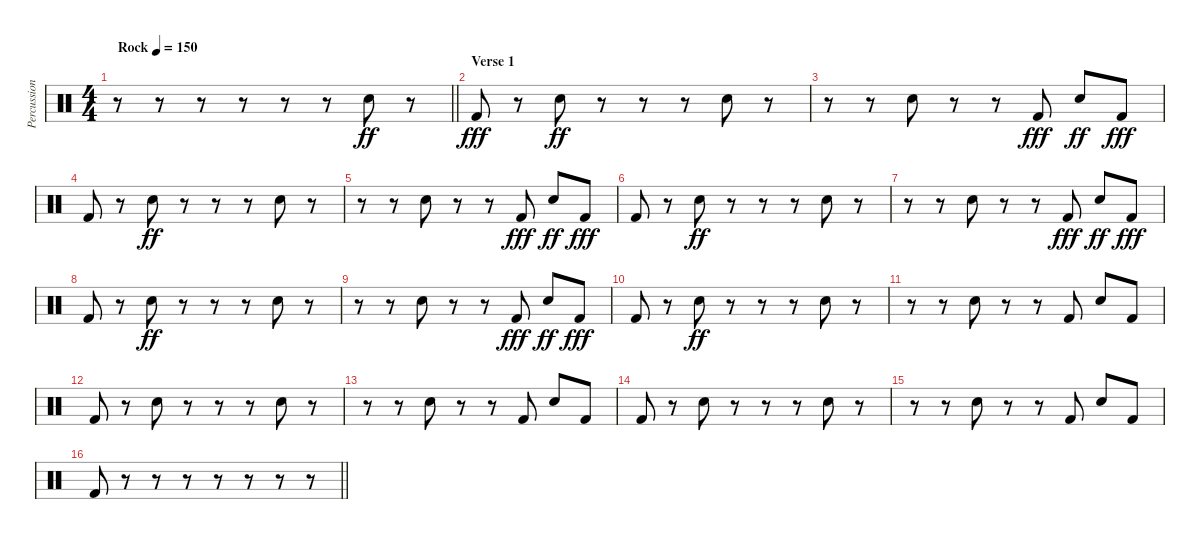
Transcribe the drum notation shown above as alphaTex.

\track ("Percussion" "Percussion") {instrument percussion}
\staff {score}
\articulation defaults
\ts (4 4)
\tempo (150 "Rock")
\clef neutral
\barLineRight lightlight
\ks c
r.8{dy ff} r.8 r.8 r.8 r.8 r.8 "Snare (hit) 2".8 r.8 |
\section ("" "Verse 1")
"Kick (hit) 2".8{dy fff} r.8 "Snare (hit) 2".8{dy ff} r.8 r.8 r.8 "Snare (hit) 2".8 r.8 |
r.8 r.8 "Snare (hit) 2".8 r.8 r.8 "Kick (hit) 2".8{dy fff} "Snare (hit) 2".8{dy ff} "Kick (hit) 2".8{dy fff} |
"Kick (hit) 2".8 r.8 "Snare (hit) 2".8{dy ff} r.8 r.8 r.8 "Snare (hit) 2".8 r.8 |
r.8 r.8 "Snare (hit) 2".8 r.8 r.8 "Kick (hit) 2".8{dy fff} "Snare (hit) 2".8{dy ff} "Kick (hit) 2".8{dy fff} |
"Kick (hit) 2".8 r.8 "Snare (hit) 2".8{dy ff} r.8 r.8 r.8 "Snare (hit) 2".8 r.8 |
r.8 r.8 "Snare (hit) 2".8 r.8 r.8 "Kick (hit) 2".8{dy fff} "Snare (hit) 2".8{dy ff} "Kick (hit) 2".8{dy fff} |
"Kick (hit) 2".8 r.8 "Snare (hit) 2".8{dy ff} r.8 r.8 r.8 "Snare (hit) 2".8 r.8 |
r.8 r.8 "Snare (hit) 2".8 r.8 r.8 "Kick (hit) 2".8{dy fff} "Snare (hit) 2".8{dy ff} "Kick (hit) 2".8{dy fff} |
"Kick (hit) 2".8 r.8 "Snare (hit) 2".8{dy ff} r.8 r.8 r.8 "Snare (hit) 2".8 r.8 |
r.8 r.8 "Snare (hit) 2".8 r.8 r.8 "Kick (hit) 2".8 "Snare (hit) 2".8 "Kick (hit) 2".8 |
"Kick (hit) 2".8 r.8 "Snare (hit) 2".8 r.8 r.8 r.8 "Snare (hit) 2".8 r.8 |
r.8 r.8 "Snare (hit) 2".8 r.8 r.8 "Kick (hit) 2".8 "Snare (hit) 2".8 "Kick (hit) 2".8 |
"Kick (hit) 2".8 r.8 "Snare (hit) 2".8 r.8 r.8 r.8 "Snare (hit) 2".8 r.8 |
r.8 r.8 "Snare (hit) 2".8 r.8 r.8 "Kick (hit) 2".8 "Snare (hit) 2".8 "Kick (hit) 2".8 |
\barLineRight lightlight "Kick (hit) 2".8
r.8 r.8 r.8 r.8 r.8 r.8 r.8
